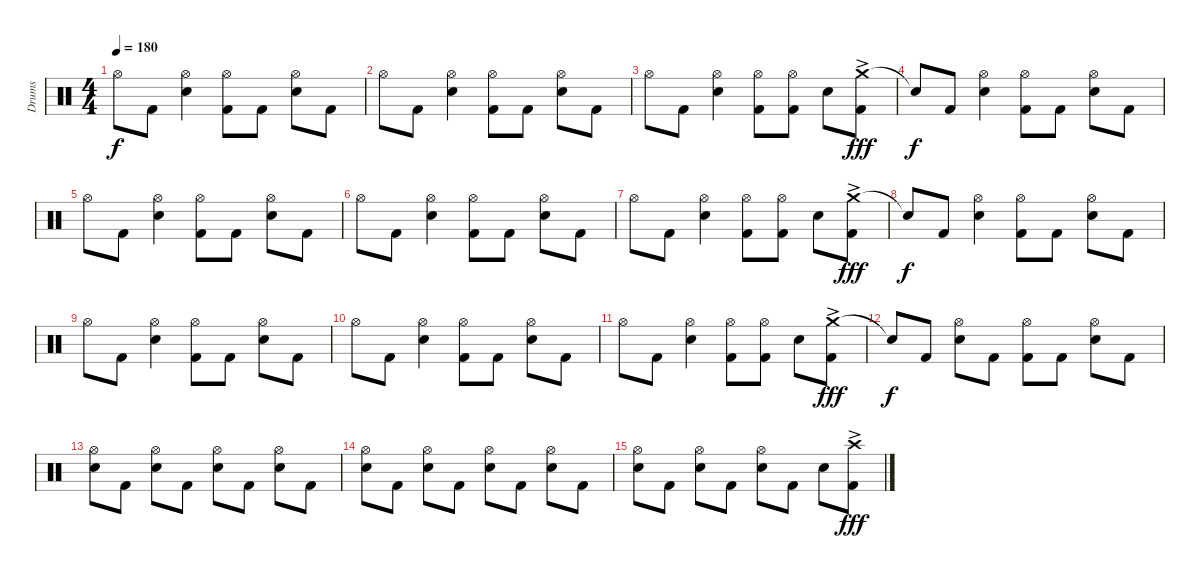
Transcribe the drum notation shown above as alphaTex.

\track ("Drums" "Drums") {instrument percussion}
\staff {score}
\articulation defaults
\ts (4 4)
\tempo 180
\clef neutral
\ks c "Hi-Hat (open)".8{dy f} "Kick (hit) 2".8
("Hi-Hat (open)" "Snare (hit) 2").4 ("Hi-Hat (open)" "Kick (hit) 2").8 "Kick (hit) 2".8 ("Hi-Hat (open)" "Snare (hit) 2").8 "Kick (hit) 2".8 |
"Hi-Hat (open)".8 "Kick (hit) 2".8 ("Hi-Hat (open)" "Snare (hit) 2").4 ("Hi-Hat (open)" "Kick (hit) 2").8 "Kick (hit) 2".8 ("Hi-Hat (open)" "Snare (hit) 2").8 "Kick (hit) 2".8 |
"Hi-Hat (open)".8 "Kick (hit) 2".8 ("Hi-Hat (open)" "Snare (hit) 2").4 ("Hi-Hat (open)" "Kick (hit) 2").8 ("Hi-Hat (open)" "Kick (hit) 2").8 "Snare (hit) 2".8 ("Crash medium (hit)"{ac} "Kick (hit) 2").8{dy fff} |
"Snare (hit)"{t}.8{dy f} "Kick (hit) 2".8 ("Hi-Hat (open)" "Snare (hit) 2").4 ("Hi-Hat (open)" "Kick (hit) 2").8 "Kick (hit) 2".8 ("Hi-Hat (open)" "Snare (hit) 2").8 "Kick (hit) 2".8 |
"Hi-Hat (open)".8 "Kick (hit) 2".8 ("Hi-Hat (open)" "Snare (hit) 2").4 ("Hi-Hat (open)" "Kick (hit) 2").8 "Kick (hit) 2".8 ("Hi-Hat (open)" "Snare (hit) 2").8 "Kick (hit) 2".8 |
"Hi-Hat (open)".8 "Kick (hit) 2".8 ("Hi-Hat (open)" "Snare (hit) 2").4 ("Hi-Hat (open)" "Kick (hit) 2").8 "Kick (hit) 2".8 ("Hi-Hat (open)" "Snare (hit) 2").8 "Kick (hit) 2".8 |
"Hi-Hat (open)".8 "Kick (hit) 2".8 ("Hi-Hat (open)" "Snare (hit) 2").4 ("Hi-Hat (open)" "Kick (hit) 2").8 ("Hi-Hat (open)" "Kick (hit) 2").8 "Snare (hit) 2".8 ("Crash medium (hit)"{ac} "Kick (hit) 2").8{dy fff} |
"Snare (hit)"{t}.8{dy f} "Kick (hit) 2".8 ("Hi-Hat (open)" "Snare (hit) 2").4 ("Hi-Hat (open)" "Kick (hit) 2").8 "Kick (hit) 2".8 ("Hi-Hat (open)" "Snare (hit) 2").8 "Kick (hit) 2".8 |
"Hi-Hat (open)".8 "Kick (hit) 2".8 ("Hi-Hat (open)" "Snare (hit) 2").4 ("Hi-Hat (open)" "Kick (hit) 2").8 "Kick (hit) 2".8 ("Hi-Hat (open)" "Snare (hit) 2").8 "Kick (hit) 2".8 |
"Hi-Hat (open)".8 "Kick (hit) 2".8 ("Hi-Hat (open)" "Snare (hit) 2").4 ("Hi-Hat (open)" "Kick (hit) 2").8 "Kick (hit) 2".8 ("Hi-Hat (open)" "Snare (hit) 2").8 "Kick (hit) 2".8 |
"Hi-Hat (open)".8 "Kick (hit) 2".8 ("Hi-Hat (open)" "Snare (hit) 2").4 ("Hi-Hat (open)" "Kick (hit) 2").8 ("Hi-Hat (open)" "Kick (hit) 2").8 "Snare (hit) 2".8 ("Crash medium (hit)"{ac} "Kick (hit) 2").8{dy fff} |
"Snare (hit)"{t}.8{dy f} "Kick (hit) 2".8 ("Hi-Hat (open)" "Snare (hit) 2").8 "Kick (hit) 2".8 ("Hi-Hat (open)" "Kick (hit) 2").8 "Kick (hit) 2".8 ("Hi-Hat (open)" "Snare (hit) 2").8 "Kick (hit) 2".8 |
("Hi-Hat (open)" "Snare (hit) 2").8 "Kick (hit) 2".8 ("Hi-Hat (open)" "Snare (hit) 2").8 "Kick (hit) 2".8 ("Hi-Hat (open)" "Snare (hit) 2").8 "Kick (hit) 2".8 ("Hi-Hat (open)" "Snare (hit) 2").8 "Kick (hit) 2".8 |
("Hi-Hat (open)" "Snare (hit) 2").8 "Kick (hit) 2".8 ("Hi-Hat (open)" "Snare (hit) 2").8 "Kick (hit) 2".8 ("Hi-Hat (open)" "Snare (hit) 2").8 "Kick (hit) 2".8 ("Hi-Hat (open)" "Snare (hit) 2").8 "Kick (hit) 2".8 |
("Hi-Hat (open)" "Snare (hit) 2").8 "Kick (hit) 2".8 ("Hi-Hat (open)" "Snare (hit) 2").8 "Kick (hit) 2".8 ("Hi-Hat (open)" "Snare (hit) 2").8 "Kick (hit) 2".8 "Snare (hit) 2".8 ("Crash high (hit)"{ac} "Kick (hit) 2").8{dy fff}
